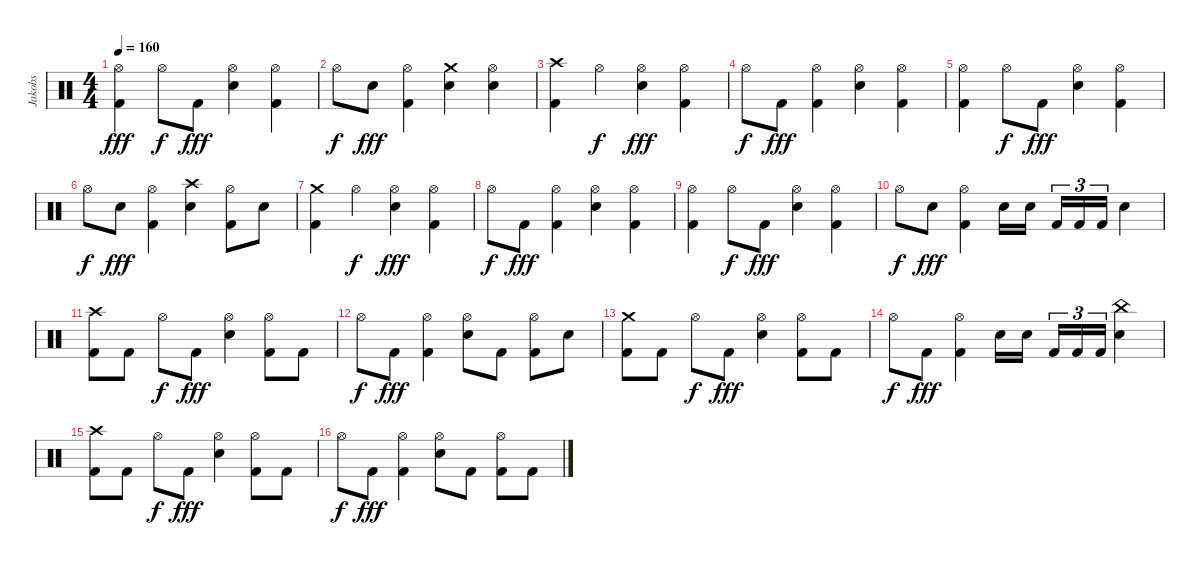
\track ("Jakobs" "Jakobs") {instrument percussion}
\staff {score}
\articulation defaults
\ts (4 4)
\tempo 160
\clef neutral
\ks c
("Hi-Hat (open)" "Kick (hit) 2").4{dy fff} "Hi-Hat (open)".8{dy f} "Kick (hit) 2".8{dy fff} ("Hi-Hat (open)" "Snare (hit) 2").4 ("Hi-Hat (open)" "Kick (hit) 2").4 |
"Hi-Hat (open)".8{dy f} "Snare (hit) 2".8{dy fff} ("Hi-Hat (open)" "Kick (hit) 2").4 ("Crash medium (hit)" "Snare (hit) 2").4 ("Hi-Hat (open)" "Snare (hit) 2").4 |
("Crash high (hit)" "Kick (hit) 2").4 "Hi-Hat (open)".4{dy f} ("Hi-Hat (open)" "Snare (hit) 2").4{dy fff} ("Hi-Hat (open)" "Kick (hit) 2").4 |
"Hi-Hat (open)".8{dy f} "Kick (hit) 2".8{dy fff} ("Hi-Hat (open)" "Kick (hit) 2").4 ("Hi-Hat (open)" "Snare (hit) 2").4 ("Hi-Hat (open)" "Kick (hit) 2").4 |
("Hi-Hat (open)" "Kick (hit) 2").4 "Hi-Hat (open)".8{dy f} "Kick (hit) 2".8{dy fff} ("Hi-Hat (open)" "Snare (hit) 2").4 ("Hi-Hat (open)" "Kick (hit) 2").4 |
"Hi-Hat (open)".8{dy f} "Snare (hit) 2".8{dy fff} ("Hi-Hat (open)" "Kick (hit) 2").4 ("Crash high (hit)" "Snare (hit) 2").4 ("Hi-Hat (open)" "Kick (hit) 2").8 "Snare (hit) 2".8 |
("Crash medium (hit)" "Kick (hit) 2").4 "Hi-Hat (open)".4{dy f} ("Hi-Hat (open)" "Snare (hit) 2").4{dy fff} ("Hi-Hat (open)" "Kick (hit) 2").4 |
"Hi-Hat (open)".8{dy f} "Kick (hit) 2".8{dy fff} ("Hi-Hat (open)" "Kick (hit) 2").4 ("Hi-Hat (open)" "Snare (hit) 2").4 ("Hi-Hat (open)" "Kick (hit) 2").4 |
("Hi-Hat (open)" "Kick (hit) 2").4 "Hi-Hat (open)".8{dy f} "Kick (hit) 2".8{dy fff} ("Hi-Hat (open)" "Snare (hit) 2").4 ("Hi-Hat (open)" "Kick (hit) 2").4 |
"Hi-Hat (open)".8{dy f} "Snare (hit) 2".8{dy fff} ("Hi-Hat (open)" "Kick (hit) 2").4 "Snare (hit) 2".16 "Snare (hit) 2".16 "Kick (hit) 2".16{tu (3 2)} "Kick (hit) 2".16{tu (3 2)} "Kick (hit) 2".16{tu (3 2)} "Snare (hit) 2".4 |
("Crash high (hit)" "Kick (hit) 2").8 "Kick (hit) 2".8 "Hi-Hat (open)".8{dy f} "Kick (hit) 2".8{dy fff} ("Hi-Hat (open)" "Snare (hit) 2").4 ("Hi-Hat (open)" "Kick (hit) 2").8 "Kick (hit) 2".8 |
"Hi-Hat (open)".8{dy f} "Kick (hit) 2".8{dy fff} ("Hi-Hat (open)" "Kick (hit) 2").4 ("Hi-Hat (open)" "Snare (hit) 2").8 "Kick (hit) 2".8 ("Hi-Hat (open)" "Kick (hit) 2").8 "Snare (hit) 2".8 |
("Crash medium (hit)" "Kick (hit) 2").8 "Kick (hit) 2".8 "Hi-Hat (open)".8{dy f} "Kick (hit) 2".8{dy fff} ("Hi-Hat (open)" "Snare (hit) 2").4 ("Hi-Hat (open)" "Kick (hit) 2").8 "Kick (hit) 2".8 |
"Hi-Hat (open)".8{dy f} "Kick (hit) 2".8{dy fff} ("Hi-Hat (open)" "Kick (hit) 2").4 "Snare (hit) 2".16 "Snare (hit) 2".16 "Kick (hit) 2".16{tu (3 2)} "Kick (hit) 2".16{tu (3 2)} "Kick (hit) 2".16{tu (3 2)} ("China (hit)" "Snare (hit) 2").4 |
("Crash high (hit)" "Kick (hit) 2").8 "Kick (hit) 2".8 "Hi-Hat (open)".8{dy f} "Kick (hit) 2".8{dy fff} ("Hi-Hat (open)" "Snare (hit) 2").4 ("Hi-Hat (open)" "Kick (hit) 2").8 "Kick (hit) 2".8 |
"Hi-Hat (open)".8{dy f} "Kick (hit) 2".8{dy fff} ("Hi-Hat (open)" "Kick (hit) 2").4 ("Hi-Hat (open)" "Snare (hit) 2").8 "Kick (hit) 2".8 ("Hi-Hat (open)" "Kick (hit) 2").8 "Kick (hit) 2".8
